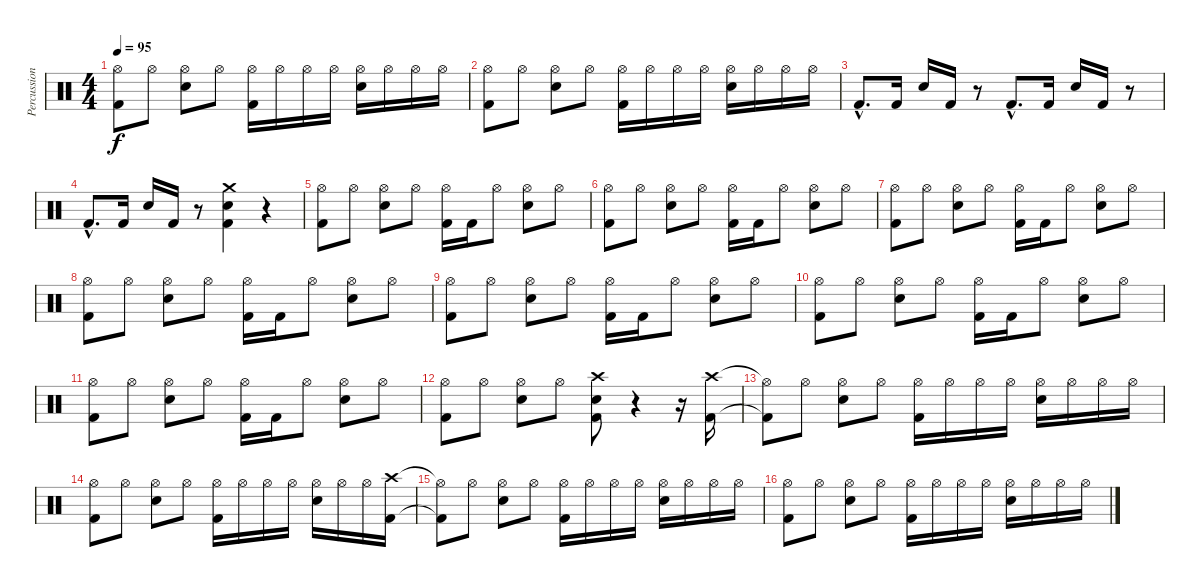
\track ("Percussion" "Percussion") {instrument percussion}
\staff {score}
\articulation defaults
\ts (4 4)
\tempo 95
\clef neutral
\ks c
("Hi-Hat (open)"{t} "Kick (hit) 2"{t}).8{dy f} "Hi-Hat (open)".8 ("Hi-Hat (open)" "Snare (hit) 2").8 "Hi-Hat (open)".8 ("Hi-Hat (open)" "Kick (hit) 2").16 "Hi-Hat (open)".16 "Hi-Hat (open)".16 "Hi-Hat (open)".16 ("Hi-Hat (open)" "Snare (hit) 2").16 "Hi-Hat (open)".16 "Hi-Hat (open)".16 "Hi-Hat (open)".16 |
("Hi-Hat (open)" "Kick (hit) 2").8 "Hi-Hat (open)".8 ("Hi-Hat (open)" "Snare (hit) 2").8 "Hi-Hat (open)".8 ("Hi-Hat (open)" "Kick (hit) 2").16 "Hi-Hat (open)".16 "Hi-Hat (open)".16 "Hi-Hat (open)".16 ("Hi-Hat (open)" "Snare (hit) 2").16 "Hi-Hat (open)".16 "Hi-Hat (open)".16 "Hi-Hat (open)".16 |
"Kick (hit) 2"{hac}.8{d} "Kick (hit) 2".16 "Snare (hit) 2".16 "Kick (hit) 2".16 r.8 "Kick (hit) 2"{hac}.8{d} "Kick (hit) 2".16 "Snare (hit) 2".16 "Kick (hit) 2".16 r.8 |
"Kick (hit) 2"{hac}.8{d} "Kick (hit) 2".16 "Snare (hit) 2".16 "Kick (hit) 2".16 r.8 ("Crash medium (hit)" "Snare (hit) 2" "Kick (hit) 2").4 r.4 |
("Hi-Hat (open)" "Kick (hit) 2").8 "Hi-Hat (open)".8 ("Hi-Hat (open)" "Snare (hit) 2").8 "Hi-Hat (open)".8 ("Hi-Hat (open)" "Kick (hit) 2").16 "Kick (hit) 2".16 "Hi-Hat (open)".8 ("Hi-Hat (open)" "Snare (hit) 2").8 "Hi-Hat (open)".8 |
("Hi-Hat (open)" "Kick (hit) 2").8 "Hi-Hat (open)".8 ("Hi-Hat (open)" "Snare (hit) 2").8 "Hi-Hat (open)".8 ("Hi-Hat (open)" "Kick (hit) 2").16 "Kick (hit) 2".16 "Hi-Hat (open)".8 ("Hi-Hat (open)" "Snare (hit) 2").8 "Hi-Hat (open)".8 |
("Hi-Hat (open)" "Kick (hit) 2").8 "Hi-Hat (open)".8 ("Hi-Hat (open)" "Snare (hit) 2").8 "Hi-Hat (open)".8 ("Hi-Hat (open)" "Kick (hit) 2").16 "Kick (hit) 2".16 "Hi-Hat (open)".8 ("Hi-Hat (open)" "Snare (hit) 2").8 "Hi-Hat (open)".8 |
("Hi-Hat (open)" "Kick (hit) 2").8 "Hi-Hat (open)".8 ("Hi-Hat (open)" "Snare (hit) 2").8 "Hi-Hat (open)".8 ("Hi-Hat (open)" "Kick (hit) 2").16 "Kick (hit) 2".16 "Hi-Hat (open)".8 ("Hi-Hat (open)" "Snare (hit) 2").8 "Hi-Hat (open)".8 |
("Hi-Hat (open)" "Kick (hit) 2").8 "Hi-Hat (open)".8 ("Hi-Hat (open)" "Snare (hit) 2").8 "Hi-Hat (open)".8 ("Hi-Hat (open)" "Kick (hit) 2").16 "Kick (hit) 2".16 "Hi-Hat (open)".8 ("Hi-Hat (open)" "Snare (hit) 2").8 "Hi-Hat (open)".8 |
("Hi-Hat (open)" "Kick (hit) 2").8 "Hi-Hat (open)".8 ("Hi-Hat (open)" "Snare (hit) 2").8 "Hi-Hat (open)".8 ("Hi-Hat (open)" "Kick (hit) 2").16 "Kick (hit) 2".16 "Hi-Hat (open)".8 ("Hi-Hat (open)" "Snare (hit) 2").8 "Hi-Hat (open)".8 |
("Hi-Hat (open)" "Kick (hit) 2").8 "Hi-Hat (open)".8 ("Hi-Hat (open)" "Snare (hit) 2").8 "Hi-Hat (open)".8 ("Hi-Hat (open)" "Kick (hit) 2").16 "Kick (hit) 2".16 "Hi-Hat (open)".8 ("Hi-Hat (open)" "Snare (hit) 2").8 "Hi-Hat (open)".8 |
("Hi-Hat (open)" "Kick (hit) 2").8 "Hi-Hat (open)".8 ("Hi-Hat (open)" "Snare (hit) 2").8 "Hi-Hat (open)".8 ("Crash high (hit)" "Snare (hit) 2" "Kick (hit) 2").8 r.4 r.16 ("Crash high (hit)" "Kick (hit) 2").16 |
("Hi-Hat (open)"{t} "Kick (hit) 2"{t}).8 "Hi-Hat (open)".8 ("Hi-Hat (open)" "Snare (hit) 2").8 "Hi-Hat (open)".8 ("Hi-Hat (open)" "Kick (hit) 2").16 "Hi-Hat (open)".16 "Hi-Hat (open)".16 "Hi-Hat (open)".16 ("Hi-Hat (open)" "Snare (hit) 2").16 "Hi-Hat (open)".16 "Hi-Hat (open)".16 "Hi-Hat (open)".16 |
("Hi-Hat (open)" "Kick (hit) 2").8 "Hi-Hat (open)".8 ("Hi-Hat (open)" "Snare (hit) 2").8 "Hi-Hat (open)".8 ("Hi-Hat (open)" "Kick (hit) 2").16 "Hi-Hat (open)".16 "Hi-Hat (open)".16 "Hi-Hat (open)".16 ("Hi-Hat (open)" "Snare (hit) 2").16 "Hi-Hat (open)".16 "Hi-Hat (open)".16 ("Crash high (hit)" "Kick (hit) 2").16 |
("Hi-Hat (open)"{t} "Kick (hit) 2"{t}).8 "Hi-Hat (open)".8 ("Hi-Hat (open)" "Snare (hit) 2").8 "Hi-Hat (open)".8 ("Hi-Hat (open)" "Kick (hit) 2").16 "Hi-Hat (open)".16 "Hi-Hat (open)".16 "Hi-Hat (open)".16 ("Hi-Hat (open)" "Snare (hit) 2").16 "Hi-Hat (open)".16 "Hi-Hat (open)".16 "Hi-Hat (open)".16 |
("Hi-Hat (open)" "Kick (hit) 2").8 "Hi-Hat (open)".8 ("Hi-Hat (open)" "Snare (hit) 2").8 "Hi-Hat (open)".8 ("Hi-Hat (open)" "Kick (hit) 2").16 "Hi-Hat (open)".16 "Hi-Hat (open)".16 "Hi-Hat (open)".16 ("Hi-Hat (open)" "Snare (hit) 2").16 "Hi-Hat (open)".16 "Hi-Hat (open)".16 "Hi-Hat (open)".16
